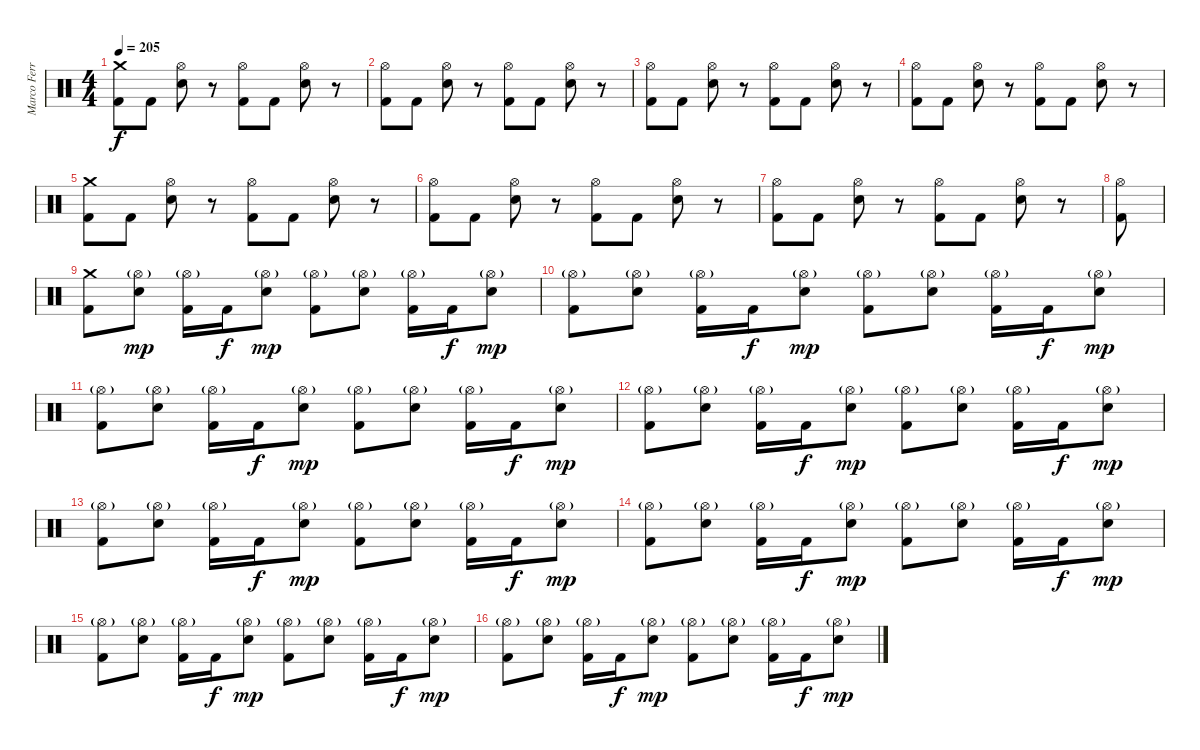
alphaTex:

\track ("Marco Ferro" "Marco Ferr") {instrument percussion}
\staff {score}
\articulation defaults
\ts (4 4)
\tempo 205
\clef neutral
\ks c
("Crash medium (hit)" "Kick (hit) 2").8{dy f} "Kick (hit) 2".8 ("Hi-Hat (open)" "Electric Snare (hit)").8 r.8 ("Hi-Hat (open)" "Kick (hit) 2").8 "Kick (hit) 2".8 ("Hi-Hat (open)" "Electric Snare (hit)").8 r.8 |
("Hi-Hat (open)" "Kick (hit) 2").8 "Kick (hit) 2".8 ("Hi-Hat (open)" "Electric Snare (hit)").8 r.8 ("Hi-Hat (open)" "Kick (hit) 2").8 "Kick (hit) 2".8 ("Hi-Hat (open)" "Electric Snare (hit)").8 r.8 |
("Hi-Hat (open)" "Kick (hit) 2").8 "Kick (hit) 2".8 ("Hi-Hat (open)" "Electric Snare (hit)").8 r.8 ("Hi-Hat (open)" "Kick (hit) 2").8 "Kick (hit) 2".8 ("Hi-Hat (open)" "Electric Snare (hit)").8 r.8 |
("Hi-Hat (open)" "Kick (hit) 2").8 "Kick (hit) 2".8 ("Hi-Hat (open)" "Electric Snare (hit)").8 r.8 ("Hi-Hat (open)" "Kick (hit) 2").8 "Kick (hit) 2".8 ("Hi-Hat (open)" "Electric Snare (hit)").8 r.8 |
("Crash medium (hit)" "Kick (hit) 2").8 "Kick (hit) 2".8 ("Hi-Hat (open)" "Electric Snare (hit)").8 r.8 ("Hi-Hat (open)" "Kick (hit) 2").8 "Kick (hit) 2".8 ("Hi-Hat (open)" "Electric Snare (hit)").8 r.8 |
("Hi-Hat (open)" "Kick (hit) 2").8 "Kick (hit) 2".8 ("Hi-Hat (open)" "Electric Snare (hit)").8 r.8 ("Hi-Hat (open)" "Kick (hit) 2").8 "Kick (hit) 2".8 ("Hi-Hat (open)" "Electric Snare (hit)").8 r.8 |
("Hi-Hat (open)" "Kick (hit) 2").8 "Kick (hit) 2".8 ("Hi-Hat (open)" "Electric Snare (hit)").8 r.8 ("Hi-Hat (open)" "Kick (hit) 2").8 "Kick (hit) 2".8 ("Hi-Hat (open)" "Electric Snare (hit)").8 r.8 |
("Hi-Hat (open)" "Kick (hit) 2").8 |
("Crash medium (hit)" "Kick (hit) 2").8 ("Hi-Hat (open)"{g} "Electric Snare (hit)").8{dy mp} ("Hi-Hat (open)"{g} "Kick (hit) 2").16 "Kick (hit) 2".16{dy f} ("Hi-Hat (open)"{g} "Electric Snare (hit)").8{dy mp} ("Hi-Hat (open)"{g} "Kick (hit) 2").8 ("Hi-Hat (open)"{g} "Electric Snare (hit)").8 ("Hi-Hat (open)"{g} "Kick (hit) 2").16 "Kick (hit) 2".16{dy f} ("Hi-Hat (open)"{g} "Electric Snare (hit)").8{dy mp} |
("Hi-Hat (open)"{g} "Kick (hit) 2").8 ("Hi-Hat (open)"{g} "Electric Snare (hit)").8 ("Hi-Hat (open)"{g} "Kick (hit) 2").16 "Kick (hit) 2".16{dy f} ("Hi-Hat (open)"{g} "Electric Snare (hit)").8{dy mp} ("Hi-Hat (open)"{g} "Kick (hit) 2").8 ("Hi-Hat (open)"{g} "Electric Snare (hit)").8 ("Hi-Hat (open)"{g} "Kick (hit) 2").16 "Kick (hit) 2".16{dy f} ("Hi-Hat (open)"{g} "Electric Snare (hit)").8{dy mp} |
("Hi-Hat (open)"{g} "Kick (hit) 2").8 ("Hi-Hat (open)"{g} "Electric Snare (hit)").8 ("Hi-Hat (open)"{g} "Kick (hit) 2").16 "Kick (hit) 2".16{dy f} ("Hi-Hat (open)"{g} "Electric Snare (hit)").8{dy mp} ("Hi-Hat (open)"{g} "Kick (hit) 2").8 ("Hi-Hat (open)"{g} "Electric Snare (hit)").8 ("Hi-Hat (open)"{g} "Kick (hit) 2").16 "Kick (hit) 2".16{dy f} ("Hi-Hat (open)"{g} "Electric Snare (hit)").8{dy mp} |
("Hi-Hat (open)"{g} "Kick (hit) 2").8 ("Hi-Hat (open)"{g} "Electric Snare (hit)").8 ("Hi-Hat (open)"{g} "Kick (hit) 2").16 "Kick (hit) 2".16{dy f} ("Hi-Hat (open)"{g} "Electric Snare (hit)").8{dy mp} ("Hi-Hat (open)"{g} "Kick (hit) 2").8 ("Hi-Hat (open)"{g} "Electric Snare (hit)").8 ("Hi-Hat (open)"{g} "Kick (hit) 2").16 "Kick (hit) 2".16{dy f} ("Hi-Hat (open)"{g} "Electric Snare (hit)").8{dy mp} |
("Hi-Hat (open)"{g} "Kick (hit) 2").8 ("Hi-Hat (open)"{g} "Electric Snare (hit)").8 ("Hi-Hat (open)"{g} "Kick (hit) 2").16 "Kick (hit) 2".16{dy f} ("Hi-Hat (open)"{g} "Electric Snare (hit)").8{dy mp} ("Hi-Hat (open)"{g} "Kick (hit) 2").8 ("Hi-Hat (open)"{g} "Electric Snare (hit)").8 ("Hi-Hat (open)"{g} "Kick (hit) 2").16 "Kick (hit) 2".16{dy f} ("Hi-Hat (open)"{g} "Electric Snare (hit)").8{dy mp} |
("Hi-Hat (open)"{g} "Kick (hit) 2").8 ("Hi-Hat (open)"{g} "Electric Snare (hit)").8 ("Hi-Hat (open)"{g} "Kick (hit) 2").16 "Kick (hit) 2".16{dy f} ("Hi-Hat (open)"{g} "Electric Snare (hit)").8{dy mp} ("Hi-Hat (open)"{g} "Kick (hit) 2").8 ("Hi-Hat (open)"{g} "Electric Snare (hit)").8 ("Hi-Hat (open)"{g} "Kick (hit) 2").16 "Kick (hit) 2".16{dy f} ("Hi-Hat (open)"{g} "Electric Snare (hit)").8{dy mp} |
("Hi-Hat (open)"{g} "Kick (hit) 2").8 ("Hi-Hat (open)"{g} "Electric Snare (hit)").8 ("Hi-Hat (open)"{g} "Kick (hit) 2").16 "Kick (hit) 2".16{dy f} ("Hi-Hat (open)"{g} "Electric Snare (hit)").8{dy mp} ("Hi-Hat (open)"{g} "Kick (hit) 2").8 ("Hi-Hat (open)"{g} "Electric Snare (hit)").8 ("Hi-Hat (open)"{g} "Kick (hit) 2").16 "Kick (hit) 2".16{dy f} ("Hi-Hat (open)"{g} "Electric Snare (hit)").8{dy mp} |
("Hi-Hat (open)"{g} "Kick (hit) 2").8 ("Hi-Hat (open)"{g} "Electric Snare (hit)").8 ("Hi-Hat (open)"{g} "Kick (hit) 2").16 "Kick (hit) 2".16{dy f} ("Hi-Hat (open)"{g} "Electric Snare (hit)").8{dy mp} ("Hi-Hat (open)"{g} "Kick (hit) 2").8 ("Hi-Hat (open)"{g} "Electric Snare (hit)").8 ("Hi-Hat (open)"{g} "Kick (hit) 2").16 "Kick (hit) 2".16{dy f} ("Hi-Hat (open)"{g} "Electric Snare (hit)").8{dy mp}
